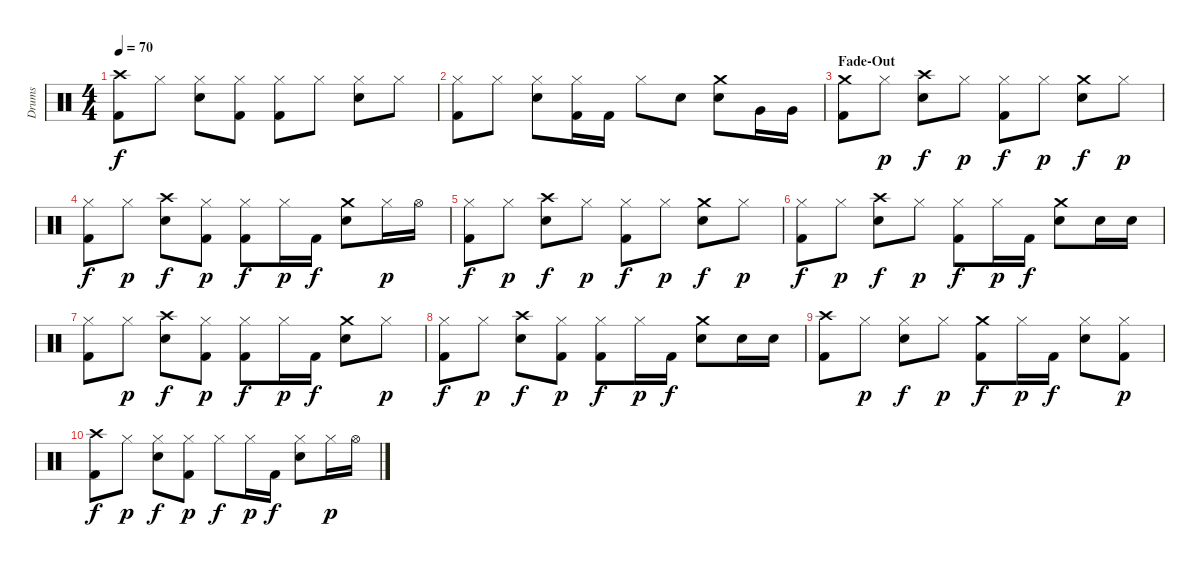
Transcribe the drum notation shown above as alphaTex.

\track ("Drums" "Drums") {instrument percussion}
\staff {score}
\articulation defaults
\ts (4 4)
\tempo 70
\clef neutral
\ks c
("Crash high (hit)" "Kick (hit) 2").8{dy f} "Hi-Hat (closed)".8 ("Hi-Hat (closed)" "Snare (hit) 2").8 ("Hi-Hat (closed)" "Kick (hit) 2").8 ("Hi-Hat (closed)" "Kick (hit) 2").8 "Hi-Hat (closed)".8 ("Hi-Hat (closed)" "Snare (hit) 2").8 "Hi-Hat (closed)".8 |
("Hi-Hat (closed)" "Kick (hit) 2").8 "Hi-Hat (closed)".8 ("Hi-Hat (closed)" "Snare (hit) 2").8 ("Hi-Hat (closed)" "Kick (hit) 2").16 "Kick (hit) 2".16 "Hi-Hat (closed)".8 "Snare (hit) 2".8 ("Crash medium (hit)" "Snare (hit) 2").8 "Very Low Tom (hit)".16 "Very Low Tom (hit)".16 |
\section ("" "Fade-Out")
("Crash medium (hit)" "Kick (hit) 2").8 "Hi-Hat (closed)".8{dy p} ("Crash high (hit)" "Snare (hit) 2").8{dy f} "Hi-Hat (closed)".8{dy p} ("Hi-Hat (closed)" "Kick (hit) 2").8{dy f} "Hi-Hat (closed)".8{dy p} ("Crash medium (hit)" "Snare (hit) 2").8{dy f} "Hi-Hat (closed)".8{dy p} |
("Hi-Hat (closed)" "Kick (hit) 2").8{dy f} "Hi-Hat (closed)".8{dy p} ("Crash high (hit)" "Snare (hit) 2").8{dy f} ("Hi-Hat (closed)" "Kick (hit) 2").8{dy p} ("Hi-Hat (closed)" "Kick (hit) 2").8{dy f} "Hi-Hat (closed)".16{dy p} "Kick (hit) 2".16{dy f} ("Crash medium (hit)" "Snare (hit) 2").8 "Hi-Hat (closed)".16{dy p} "Hi-Hat (open)".16 |
("Hi-Hat (closed)" "Kick (hit) 2").8{dy f} "Hi-Hat (closed)".8{dy p} ("Crash high (hit)" "Snare (hit) 2").8{dy f} "Hi-Hat (closed)".8{dy p} ("Hi-Hat (closed)" "Kick (hit) 2").8{dy f} "Hi-Hat (closed)".8{dy p} ("Crash medium (hit)" "Snare (hit) 2").8{dy f} "Hi-Hat (closed)".8{dy p} |
("Hi-Hat (closed)" "Kick (hit) 2").8{dy f} "Hi-Hat (closed)".8{dy p} ("Crash high (hit)" "Snare (hit) 2").8{dy f} "Hi-Hat (closed)".8{dy p} ("Hi-Hat (closed)" "Kick (hit) 2").8{dy f} "Hi-Hat (closed)".16{dy p} "Kick (hit) 2".16{dy f} ("Crash medium (hit)" "Snare (hit) 2").8 "Snare (hit) 2".16 "Snare (hit) 2".16 |
("Hi-Hat (closed)" "Kick (hit) 2").8 "Hi-Hat (closed)".8{dy p} ("Crash high (hit)" "Snare (hit) 2").8{dy f} ("Hi-Hat (closed)" "Kick (hit) 2").8{dy p} ("Hi-Hat (closed)" "Kick (hit) 2").8{dy f} "Hi-Hat (closed)".16{dy p} "Kick (hit) 2".16{dy f} ("Crash medium (hit)" "Snare (hit) 2").8 "Hi-Hat (closed)".8{dy p} |
("Hi-Hat (closed)" "Kick (hit) 2").8{dy f} "Hi-Hat (closed)".8{dy p} ("Crash high (hit)" "Snare (hit) 2").8{dy f} ("Hi-Hat (closed)" "Kick (hit) 2").8{dy p} ("Hi-Hat (closed)" "Kick (hit) 2").8{dy f} "Hi-Hat (closed)".16{dy p} "Kick (hit) 2".16{dy f} ("Crash medium (hit)" "Snare (hit) 2").8 "Snare (hit) 2".16 "Snare (hit) 2".16 |
("Crash high (hit)" "Kick (hit) 2").8 "Hi-Hat (closed)".8{dy p} ("Hi-Hat (closed)" "Snare (hit) 2").8{dy f} "Hi-Hat (closed)".8{dy p} ("Crash medium (hit)" "Kick (hit) 2").8{dy f} "Hi-Hat (closed)".16{dy p} "Kick (hit) 2".16{dy f} ("Hi-Hat (closed)" "Snare (hit) 2").8 ("Hi-Hat (closed)" "Kick (hit) 2").8{dy p} |
("Crash high (hit)" "Kick (hit) 2").8{dy f} "Hi-Hat (closed)".8{dy p} ("Hi-Hat (closed)" "Snare (hit) 2").8{dy f} ("Hi-Hat (closed)" "Kick (hit) 2").8{dy p} "Hi-Hat (closed)".8{dy f} "Hi-Hat (closed)".16{dy p} "Kick (hit) 2".16{dy f} ("Hi-Hat (closed)" "Snare (hit) 2").8 "Hi-Hat (closed)".16{dy p} "Hi-Hat (open)".16
